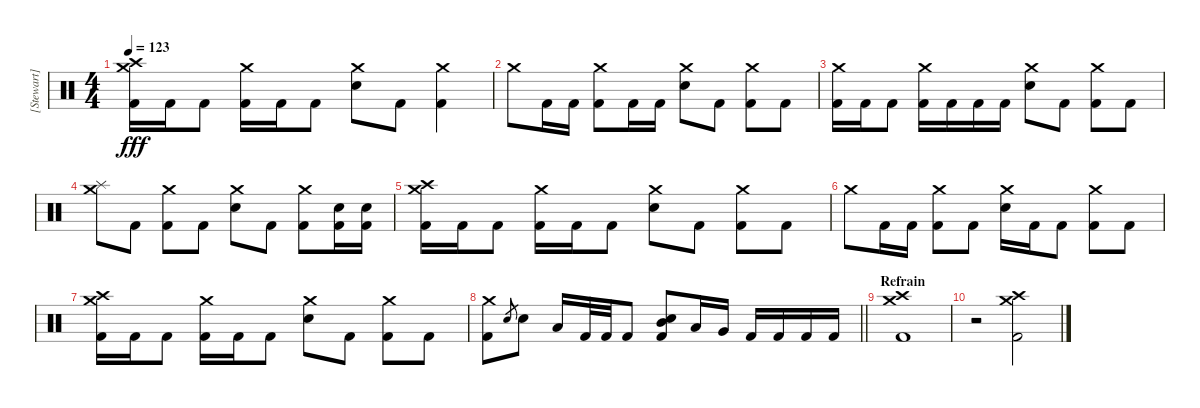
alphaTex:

\track ("[Stewart] Drums" "[Stewart] ") {instrument percussion}
\staff {score}
\articulation defaults
\ts (4 4)
\tempo 123
\clef neutral
\ks c
("Crash medium (hit)" "Crash high (hit)" "Kick (hit) 2").16{dy fff} "Kick (hit) 2".16 "Kick (hit) 2".8 ("Crash medium (hit)" "Kick (hit) 2").16 "Kick (hit) 2".16 "Kick (hit) 2".8 ("Crash medium (hit)" "Electric Snare (hit)").8 "Kick (hit) 2".8 ("Crash medium (hit)" "Kick (hit) 2").4 |
"Crash medium (hit)".8 "Kick (hit) 2".16 "Kick (hit) 2".16 ("Crash medium (hit)" "Kick (hit) 2").8 "Kick (hit) 2".16 "Kick (hit) 2".16 ("Crash medium (hit)" "Electric Snare (hit)").8 "Kick (hit) 2".8 ("Crash medium (hit)" "Kick (hit) 2").8 "Kick (hit) 2".8 |
("Crash medium (hit)" "Kick (hit) 2").16 "Kick (hit) 2".16 "Kick (hit) 2".8 ("Crash medium (hit)" "Kick (hit) 2").16 "Kick (hit) 2".16 "Kick (hit) 2".16 "Kick (hit) 2".16 ("Crash medium (hit)" "Electric Snare (hit)").8 "Kick (hit) 2".8 ("Crash medium (hit)" "Kick (hit) 2").8 "Kick (hit) 2".8 |
("Splash (hit)" "Crash medium (hit)").8 "Kick (hit) 2".8 ("Crash medium (hit)" "Kick (hit) 2").8 "Kick (hit) 2".8 ("Crash medium (hit)" "Electric Snare (hit)").8 "Kick (hit) 2".8 ("Crash medium (hit)" "Kick (hit) 2").8 ("Electric Snare (hit)" "Kick (hit) 2").16 ("Electric Snare (hit)" "Kick (hit) 2").16 |
("Crash medium (hit)" "Crash high (hit)" "Kick (hit) 2").16 "Kick (hit) 2".16 "Kick (hit) 2".8 ("Crash medium (hit)" "Kick (hit) 2").16 "Kick (hit) 2".16 "Kick (hit) 2".8 ("Crash medium (hit)" "Electric Snare (hit)").8 "Kick (hit) 2".8 ("Crash medium (hit)" "Kick (hit) 2").8 "Kick (hit) 2".8 |
"Crash medium (hit)".8 "Kick (hit) 2".16 "Kick (hit) 2".16 ("Crash medium (hit)" "Kick (hit) 2").8 "Kick (hit) 2".8 ("Crash medium (hit)" "Electric Snare (hit)").16 "Kick (hit) 2".16 "Kick (hit) 2".8 ("Crash medium (hit)" "Kick (hit) 2").8 "Kick (hit) 2".8 |
("Crash medium (hit)" "Crash high (hit)" "Kick (hit) 2").16 "Kick (hit) 2".16 "Kick (hit) 2".8 ("Crash medium (hit)" "Kick (hit) 2").16 "Kick (hit) 2".16 "Kick (hit) 2".8 ("Crash medium (hit)" "Electric Snare (hit)").8 "Kick (hit) 2".8 ("Crash medium (hit)" "Kick (hit) 2").8 "Kick (hit) 2".8 |
\barLineRight lightlight
("Crash medium (hit)" "Kick (hit) 2").8 "Electric Snare (hit)".8{gr} "Electric Snare (hit)".8 "Low Tom (hit)".16 "Kick (hit) 2".32 "Kick (hit) 2".32 "Kick (hit) 2".8 ("Mid Tom (hit)" "Electric Snare (hit)" "Kick (hit) 2").8 "Low Tom (hit)".16 "Very Low Tom (hit)".16 "Kick (hit) 2".16 "Kick (hit) 2".16 "Kick (hit) 2".16 "Kick (hit) 2".16 |
\section ("" "Refrain")
("Crash medium (hit)" "Crash high (hit)" "Kick (hit) 2").1 |
r.2 ("Crash medium (hit)" "Crash high (hit)" "Kick (hit) 2").2
